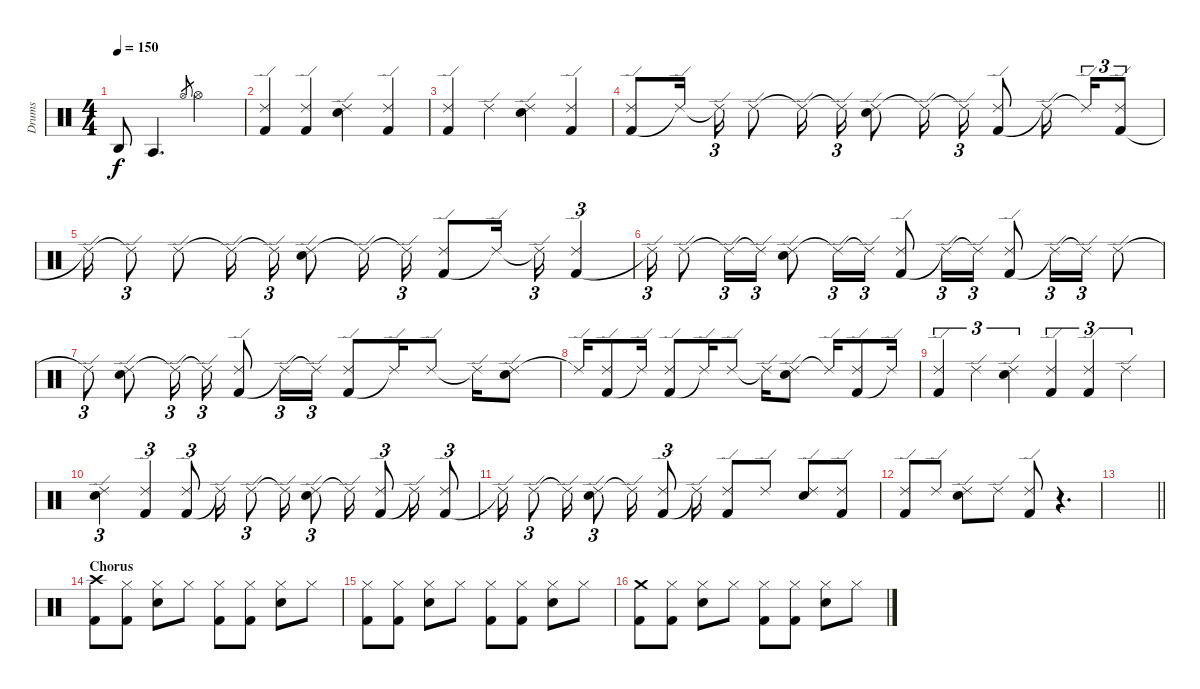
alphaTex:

\track ("Drums" "Drums") {instrument percussion}
\staff {score}
\articulation defaults
\ts (4 4)
\tempo 150
\clef neutral
\ks c "Agogo high (hit)"{t}.8{dy f} "Agogo tow (hit)".4{d} "Hi-Hat (open)".8{gr} "Hi-Hat (open)".2
|
("Kick (hit) 2" "Ride (edge) 2").4 ("Kick (hit) 2" "Ride (edge) 2").4 ("Ride (edge) 2" "Snare (hit) 2").4 ("Kick (hit) 2" "Ride (edge) 2").4 |
("Kick (hit) 2" "Ride (edge) 2").4 "Ride (edge) 2".4 ("Ride (edge) 2" "Snare (hit) 2").4 ("Kick (hit) 2" "Ride (edge) 2").4 |
("Kick (hit) 2" "Ride (edge) 2").8 "Ride (edge) 2"{t}.16{beam splitsecondary} "Ride (edge) 2"{t}.16{tu (3 2)} "Ride (edge) 2".8 "Ride (edge) 2"{t}.16{beam splitsecondary} "Ride (edge) 2"{t}.16{tu (3 2)} ("Ride (edge) 2" "Snare (hit) 2").8 "Ride (edge) 2"{t}.16{beam splitsecondary} "Ride (edge) 2"{t}.16{tu (3 2)} ("Kick (hit) 2" "Ride (edge) 2").8 "Ride (edge) 2"{t}.16{beam splitsecondary} "Ride (edge) 2"{t}.16{tu (3 2)} ("Kick (hit) 2" "Ride (edge) 2").8{tu (3 2)} |
"Ride (edge) 2"{t}.16 "Ride (edge) 2"{t}.8{tu (3 2)} "Ride (edge) 2".8 "Ride (edge) 2"{t}.16{beam splitsecondary} "Ride (edge) 2"{t}.16{tu (3 2)} ("Ride (edge) 2" "Snare (hit) 2").8 "Ride (edge) 2"{t}.16{beam splitsecondary} "Ride (edge) 2"{t}.16{tu (3 2)} ("Kick (hit) 2" "Ride (edge) 2").8 "Ride (edge) 2"{t}.16 "Ride (edge) 2"{t}.16{tu (3 2)} ("Kick (hit) 2" "Ride (edge) 2").4{tu (3 2)} |
"Ride (edge) 2"{t}.16{tu (3 2)} "Ride (edge) 2".8 "Ride (edge) 2"{t}.16{tu (3 2)} "Ride (edge) 2"{t}.16{tu (3 2)} ("Ride (edge) 2" "Snare (hit) 2").8 "Ride (edge) 2"{t}.16{tu (3 2)} "Ride (edge) 2"{t}.16{tu (3 2)} ("Kick (hit) 2" "Ride (edge) 2").8 "Ride (edge) 2"{t}.16{tu (3 2)} "Ride (edge) 2"{t}.16{tu (3 2)} ("Kick (hit) 2" "Ride (edge) 2").8 "Ride (edge) 2"{t}.16{tu (3 2)} "Ride (edge) 2"{t}.16{tu (3 2)} "Ride (edge) 2".8 |
"Ride (edge) 2"{t}.8{tu (3 2)} ("Ride (edge) 2" "Snare (hit) 2").8 "Ride (edge) 2"{t}.16{tu (3 2)} "Ride (edge) 2"{t}.16{tu (3 2)} ("Kick (hit) 2" "Ride (edge) 2").8 "Ride (edge) 2"{t}.16{tu (3 2)} "Ride (edge) 2"{t}.16{tu (3 2)} ("Kick (hit) 2" "Ride (edge) 2").8 "Ride (edge) 2"{t}.16 "Ride (edge) 2".8 "Ride (edge) 2"{t}.16 ("Ride (edge) 2" "Snare (hit) 2").8 |
"Ride (edge) 2"{t}.16 ("Kick (hit) 2" "Ride (edge) 2").8 "Ride (edge) 2"{t}.16 ("Kick (hit) 2" "Ride (edge) 2").8 "Ride (edge) 2"{t}.16 "Ride (edge) 2".8 "Ride (edge) 2"{t}.16 ("Ride (edge) 2" "Snare (hit) 2").8 "Ride (edge) 2"{t}.16 ("Kick (hit) 2" "Ride (edge) 2").8 "Ride (edge) 2"{t}.16 |
("Kick (hit) 2" "Ride (edge) 2").4{tu (3 2)} "Ride (edge) 2".4{tu (3 2)} ("Ride (edge) 2" "Snare (hit) 2").4{tu (3 2)} ("Kick (hit) 2" "Ride (edge) 2").4{tu (3 2)} ("Kick (hit) 2" "Ride (edge) 2").4{tu (3 2)} "Ride (edge) 2".4{tu (3 2)} |
("Ride (edge) 2" "Snare (hit) 2").4{tu (3 2)} ("Kick (hit) 2" "Ride (edge) 2").4{tu (3 2)} ("Kick (hit) 2" "Ride (edge) 2").8{tu (3 2)} "Ride (edge) 2"{t}.16 "Ride (edge) 2".8{tu (3 2)} "Ride (edge) 2"{t}.16 ("Ride (edge) 2" "Snare (hit) 2").8{tu (3 2)} "Ride (edge) 2"{t}.16 ("Kick (hit) 2" "Ride (edge) 2").8{tu (3 2)} "Ride (edge) 2"{t}.16 ("Kick (hit) 2" "Ride (edge) 2").8{tu (3 2)} |
"Ride (edge) 2"{t}.16 "Ride (edge) 2".8{tu (3 2)} "Ride (edge) 2"{t}.16 ("Ride (edge) 2" "Snare (hit) 2").8{tu (3 2)} "Ride (edge) 2"{t}.16 ("Kick (hit) 2" "Ride (edge) 2").8{tu (3 2)} "Ride (edge) 2"{t}.16 ("Kick (hit) 2" "Ride (edge) 2").8 "Ride (edge) 2".8 ("Ride (edge) 2" "Snare (hit) 2").8 ("Kick (hit) 2" "Ride (edge) 2").8 |
("Kick (hit) 2" "Ride (edge) 2").8 "Ride (edge) 2".8 ("Ride (edge) 2" "Snare (hit) 2").8 "Ride (edge) 2".8 ("Kick (hit) 2" "Ride (edge) 2").8 r.4{d} |
\barLineRight lightlight
|
\section ("" "Chorus")
("Kick (hit) 2" "Crash high (hit)").8 ("Kick (hit) 2" "Hi-Hat (closed)").8 ("Hi-Hat (closed)" "Snare (hit) 2").8 "Hi-Hat (closed)".8 ("Kick (hit) 2" "Hi-Hat (closed)").8 ("Kick (hit) 2" "Hi-Hat (closed)").8 ("Hi-Hat (closed)" "Snare (hit) 2").8 "Hi-Hat (closed)".8 |
("Kick (hit) 2" "Hi-Hat (closed)").8 ("Kick (hit) 2" "Hi-Hat (closed)").8 ("Hi-Hat (closed)" "Snare (hit) 2").8 "Hi-Hat (closed)".8 ("Kick (hit) 2" "Hi-Hat (closed)").8 ("Kick (hit) 2" "Hi-Hat (closed)").8 ("Hi-Hat (closed)" "Snare (hit) 2").8 "Hi-Hat (closed)".8 |
("Kick (hit) 2" "Crash medium (hit)").8 ("Kick (hit) 2" "Hi-Hat (closed)").8 ("Hi-Hat (closed)" "Snare (hit) 2").8 "Hi-Hat (closed)".8 ("Kick (hit) 2" "Hi-Hat (closed)").8 ("Kick (hit) 2" "Hi-Hat (closed)").8 ("Hi-Hat (closed)" "Snare (hit) 2").8 "Hi-Hat (closed)".8
